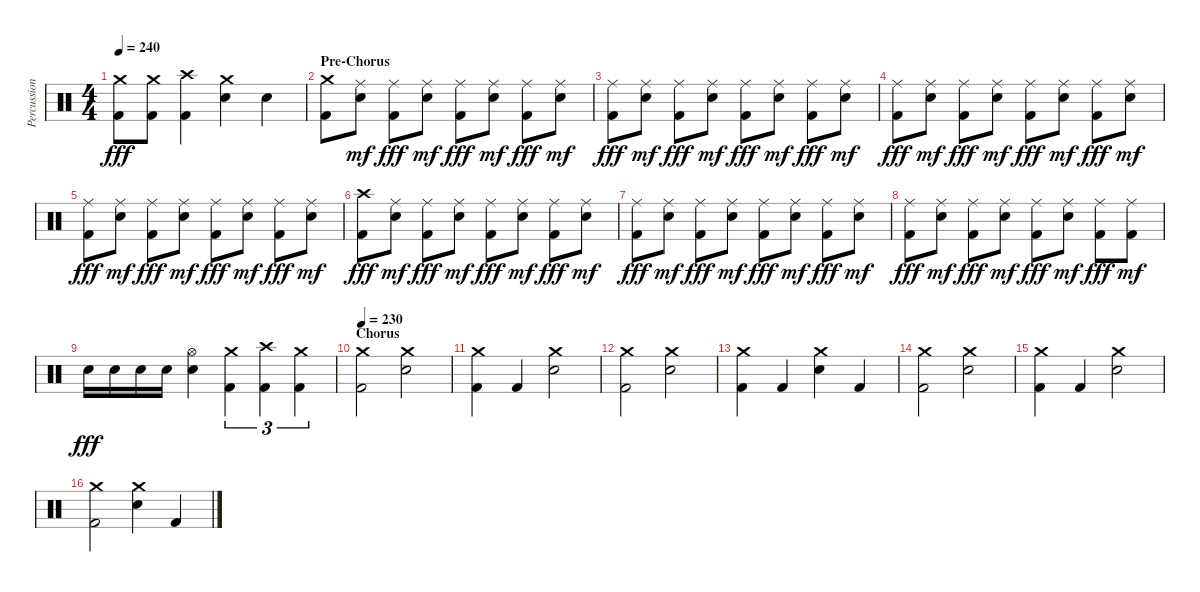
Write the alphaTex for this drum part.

\track ("Percussion" "Percussion") {instrument percussion}
\staff {score}
\articulation defaults
\ts (4 4)
\tempo 240
\clef neutral
\ks c
("Kick (hit) 2" "Crash medium (hit)").8{dy fff} ("Kick (hit) 2" "Crash medium (hit)").8 ("Kick (hit) 2" "Crash high (hit)").4 ("Electric Snare (hit)" "Crash medium (hit)").4 "Electric Snare (hit)".4 |
\section ("" "Pre-Chorus")
("Kick (hit) 2" "Crash medium (hit)").8 ("Electric Snare (hit)" "Ride (middle)").8{dy mf} ("Kick (hit) 2" "Ride (middle)").8{dy fff} ("Electric Snare (hit)" "Ride (middle)").8{dy mf} ("Kick (hit) 2" "Ride (middle)").8{dy fff} ("Electric Snare (hit)" "Ride (middle)").8{dy mf} ("Kick (hit) 2" "Ride (middle)").8{dy fff} ("Electric Snare (hit)" "Ride (middle)").8{dy mf} |
("Kick (hit) 2" "Ride (middle)").8{dy fff} ("Electric Snare (hit)" "Ride (middle)").8{dy mf} ("Kick (hit) 2" "Ride (middle)").8{dy fff} ("Electric Snare (hit)" "Ride (middle)").8{dy mf} ("Kick (hit) 2" "Ride (middle)").8{dy fff} ("Electric Snare (hit)" "Ride (middle)").8{dy mf} ("Kick (hit) 2" "Ride (middle)").8{dy fff} ("Electric Snare (hit)" "Ride (middle)").8{dy mf} |
("Kick (hit) 2" "Ride (middle)").8{dy fff} ("Electric Snare (hit)" "Ride (middle)").8{dy mf} ("Kick (hit) 2" "Ride (middle)").8{dy fff} ("Electric Snare (hit)" "Ride (middle)").8{dy mf} ("Kick (hit) 2" "Ride (middle)").8{dy fff} ("Electric Snare (hit)" "Ride (middle)").8{dy mf} ("Kick (hit) 2" "Ride (middle)").8{dy fff} ("Electric Snare (hit)" "Ride (middle)").8{dy mf} |
("Kick (hit) 2" "Ride (middle)").8{dy fff} ("Electric Snare (hit)" "Ride (middle)").8{dy mf} ("Kick (hit) 2" "Ride (middle)").8{dy fff} ("Electric Snare (hit)" "Ride (middle)").8{dy mf} ("Kick (hit) 2" "Ride (middle)").8{dy fff} ("Electric Snare (hit)" "Ride (middle)").8{dy mf} ("Kick (hit) 2" "Ride (middle)").8{dy fff} ("Electric Snare (hit)" "Ride (middle)").8{dy mf} |
("Kick (hit) 2" "Crash high (hit)").8{dy fff} ("Electric Snare (hit)" "Ride (middle)").8{dy mf} ("Kick (hit) 2" "Ride (middle)").8{dy fff} ("Electric Snare (hit)" "Ride (middle)").8{dy mf} ("Kick (hit) 2" "Ride (middle)").8{dy fff} ("Electric Snare (hit)" "Ride (middle)").8{dy mf} ("Kick (hit) 2" "Ride (middle)").8{dy fff} ("Electric Snare (hit)" "Ride (middle)").8{dy mf} |
("Kick (hit) 2" "Ride (middle)").8{dy fff} ("Electric Snare (hit)" "Ride (middle)").8{dy mf} ("Kick (hit) 2" "Ride (middle)").8{dy fff} ("Electric Snare (hit)" "Ride (middle)").8{dy mf} ("Kick (hit) 2" "Ride (middle)").8{dy fff} ("Electric Snare (hit)" "Ride (middle)").8{dy mf} ("Kick (hit) 2" "Ride (middle)").8{dy fff} ("Electric Snare (hit)" "Ride (middle)").8{dy mf} |
("Kick (hit) 2" "Ride (middle)").8{dy fff} ("Electric Snare (hit)" "Ride (middle)").8{dy mf} ("Kick (hit) 2" "Ride (middle)").8{dy fff} ("Electric Snare (hit)" "Ride (middle)").8{dy mf} ("Kick (hit) 2" "Ride (middle)").8{dy fff} ("Electric Snare (hit)" "Ride (middle)").8{dy mf} ("Kick (hit) 2" "Ride (middle)").8{dy fff} ("Kick (hit) 2" "Ride (middle)").8{dy mf} |
"Electric Snare (hit)".16{dy fff} "Electric Snare (hit)".16 "Electric Snare (hit)".16 "Electric Snare (hit)".16 ("Electric Snare (hit)" "Hi-Hat (open)").4 ("Kick (hit) 2" "Crash medium (hit)").4{tu (3 2)} ("Kick (hit) 2" "Crash high (hit)").4{tu (3 2)} ("Kick (hit) 2" "Crash medium (hit)").4{tu (3 2)} |
\section ("" "Chorus")
\tempo 230
("Kick (hit) 2" "Crash medium (hit)").2 ("Electric Snare (hit)" "Crash medium (hit)").2 |
("Kick (hit) 2" "Crash medium (hit)").4 "Kick (hit) 2".4 ("Electric Snare (hit)" "Crash medium (hit)").2 |
("Kick (hit) 2" "Crash medium (hit)").2 ("Electric Snare (hit)" "Crash medium (hit)").2 |
("Kick (hit) 2" "Crash medium (hit)").4 "Kick (hit) 2".4 ("Electric Snare (hit)" "Crash medium (hit)").4 "Kick (hit) 2".4 |
("Kick (hit) 2" "Crash medium (hit)").2 ("Electric Snare (hit)" "Crash medium (hit)").2 |
("Kick (hit) 2" "Crash medium (hit)").4 "Kick (hit) 2".4 ("Electric Snare (hit)" "Crash medium (hit)").2 |
("Kick (hit) 2" "Crash medium (hit)").2 ("Electric Snare (hit)" "Crash medium (hit)").4 "Kick (hit) 2".4
